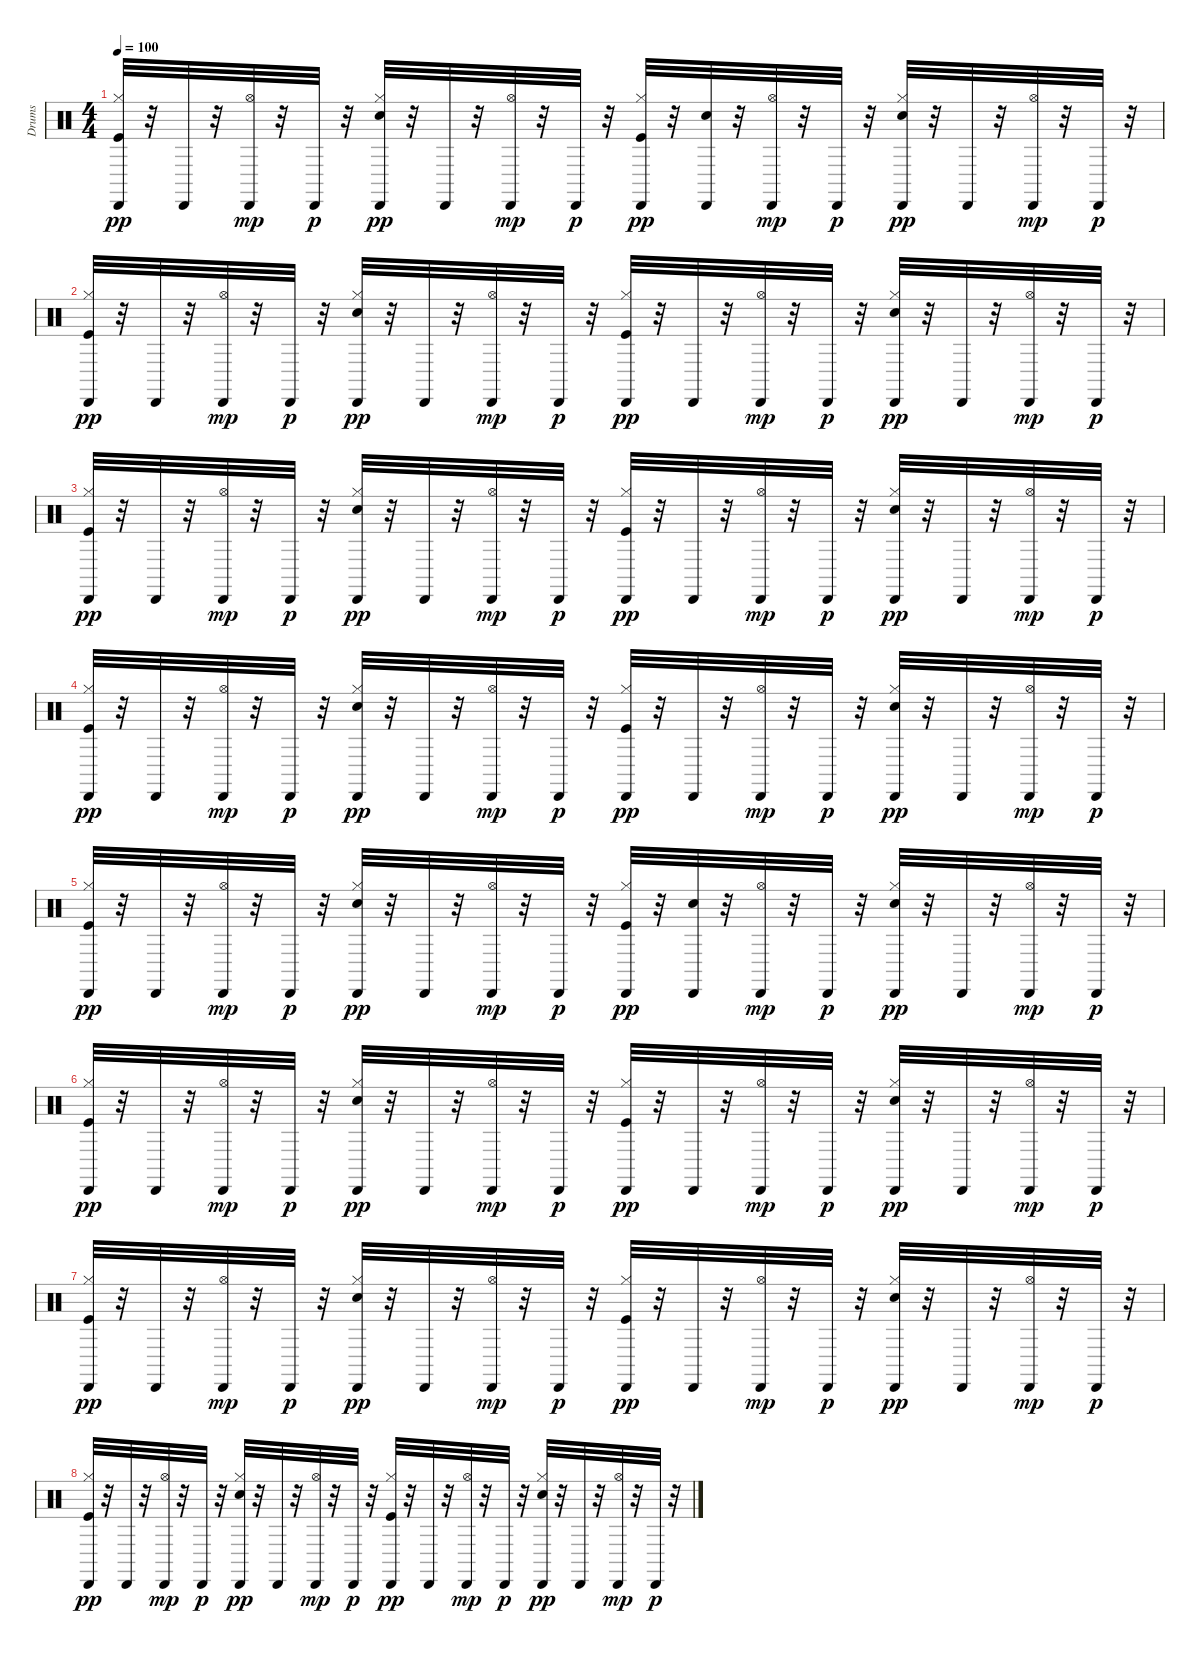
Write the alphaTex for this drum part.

\track ("Drums" "Drums") {instrument percussion}
\staff {score}
\articulation defaults
\ts (4 4)
\tempo 100
\clef neutral
\ks c
("Kick (hit)" "Hi-Hat (closed)" "Cabasa (hit)").32{dy pp} r.32 "Cabasa (hit)".32 r.32 ("Hi-Hat (open)" "Cabasa (hit)").32{dy mp} r.32 "Cabasa (hit)".32{dy p} r.32 ("Electric Snare (hit)" "Hi-Hat (closed)" "Cabasa (hit)").32{dy pp} r.32 "Cabasa (hit)".32 r.32 ("Hi-Hat (open)" "Cabasa (hit)").32{dy mp} r.32 "Cabasa (hit)".32{dy p} r.32 ("Kick (hit)" "Hi-Hat (closed)" "Cabasa (hit)").32{dy pp} r.32 ("Electric Snare (hit)" "Cabasa (hit)").32 r.32 ("Hi-Hat (open)" "Cabasa (hit)").32{dy mp} r.32 "Cabasa (hit)".32{dy p} r.32 ("Electric Snare (hit)" "Hi-Hat (closed)" "Cabasa (hit)").32{dy pp} r.32 "Cabasa (hit)".32 r.32 ("Hi-Hat (open)" "Cabasa (hit)").32{dy mp} r.32 "Cabasa (hit)".32{dy p} r.32 |
("Kick (hit)" "Hi-Hat (closed)" "Cabasa (hit)").32{dy pp} r.32 "Cabasa (hit)".32 r.32 ("Hi-Hat (open)" "Cabasa (hit)").32{dy mp} r.32 "Cabasa (hit)".32{dy p} r.32 ("Electric Snare (hit)" "Hi-Hat (closed)" "Cabasa (hit)").32{dy pp} r.32 "Cabasa (hit)".32 r.32 ("Hi-Hat (open)" "Cabasa (hit)").32{dy mp} r.32 "Cabasa (hit)".32{dy p} r.32 ("Kick (hit)" "Hi-Hat (closed)" "Cabasa (hit)").32{dy pp} r.32 "Cabasa (hit)".32 r.32 ("Hi-Hat (open)" "Cabasa (hit)").32{dy mp} r.32 "Cabasa (hit)".32{dy p} r.32 ("Electric Snare (hit)" "Hi-Hat (closed)" "Cabasa (hit)").32{dy pp} r.32 "Cabasa (hit)".32 r.32 ("Hi-Hat (open)" "Cabasa (hit)").32{dy mp} r.32 "Cabasa (hit)".32{dy p} r.32 |
("Kick (hit)" "Hi-Hat (closed)" "Cabasa (hit)").32{dy pp} r.32 "Cabasa (hit)".32 r.32 ("Hi-Hat (open)" "Cabasa (hit)").32{dy mp} r.32 "Cabasa (hit)".32{dy p} r.32 ("Electric Snare (hit)" "Hi-Hat (closed)" "Cabasa (hit)").32{dy pp} r.32 "Cabasa (hit)".32 r.32 ("Hi-Hat (open)" "Cabasa (hit)").32{dy mp} r.32 "Cabasa (hit)".32{dy p} r.32 ("Kick (hit)" "Hi-Hat (closed)" "Cabasa (hit)").32{dy pp} r.32 "Cabasa (hit)".32 r.32 ("Hi-Hat (open)" "Cabasa (hit)").32{dy mp} r.32 "Cabasa (hit)".32{dy p} r.32 ("Electric Snare (hit)" "Hi-Hat (closed)" "Cabasa (hit)").32{dy pp} r.32 "Cabasa (hit)".32 r.32 ("Hi-Hat (open)" "Cabasa (hit)").32{dy mp} r.32 "Cabasa (hit)".32{dy p} r.32 |
("Kick (hit)" "Hi-Hat (closed)" "Cabasa (hit)").32{dy pp} r.32 "Cabasa (hit)".32 r.32 ("Hi-Hat (open)" "Cabasa (hit)").32{dy mp} r.32 "Cabasa (hit)".32{dy p} r.32 ("Electric Snare (hit)" "Hi-Hat (closed)" "Cabasa (hit)").32{dy pp} r.32 "Cabasa (hit)".32 r.32 ("Hi-Hat (open)" "Cabasa (hit)").32{dy mp} r.32 "Cabasa (hit)".32{dy p} r.32 ("Kick (hit)" "Hi-Hat (closed)" "Cabasa (hit)").32{dy pp} r.32 "Cabasa (hit)".32 r.32 ("Hi-Hat (open)" "Cabasa (hit)").32{dy mp} r.32 "Cabasa (hit)".32{dy p} r.32 ("Electric Snare (hit)" "Hi-Hat (closed)" "Cabasa (hit)").32{dy pp} r.32 "Cabasa (hit)".32 r.32 ("Hi-Hat (open)" "Cabasa (hit)").32{dy mp} r.32 "Cabasa (hit)".32{dy p} r.32 |
("Kick (hit)" "Hi-Hat (closed)" "Cabasa (hit)").32{dy pp} r.32 "Cabasa (hit)".32 r.32 ("Hi-Hat (open)" "Cabasa (hit)").32{dy mp} r.32 "Cabasa (hit)".32{dy p} r.32 ("Electric Snare (hit)" "Hi-Hat (closed)" "Cabasa (hit)").32{dy pp} r.32 "Cabasa (hit)".32 r.32 ("Hi-Hat (open)" "Cabasa (hit)").32{dy mp} r.32 "Cabasa (hit)".32{dy p} r.32 ("Kick (hit)" "Hi-Hat (closed)" "Cabasa (hit)").32{dy pp} r.32 ("Electric Snare (hit)" "Cabasa (hit)").32 r.32 ("Hi-Hat (open)" "Cabasa (hit)").32{dy mp} r.32 "Cabasa (hit)".32{dy p} r.32 ("Electric Snare (hit)" "Hi-Hat (closed)" "Cabasa (hit)").32{dy pp} r.32 "Cabasa (hit)".32 r.32 ("Hi-Hat (open)" "Cabasa (hit)").32{dy mp} r.32 "Cabasa (hit)".32{dy p} r.32 |
("Kick (hit)" "Hi-Hat (closed)" "Cabasa (hit)").32{dy pp} r.32 "Cabasa (hit)".32 r.32 ("Hi-Hat (open)" "Cabasa (hit)").32{dy mp} r.32 "Cabasa (hit)".32{dy p} r.32 ("Electric Snare (hit)" "Hi-Hat (closed)" "Cabasa (hit)").32{dy pp} r.32 "Cabasa (hit)".32 r.32 ("Hi-Hat (open)" "Cabasa (hit)").32{dy mp} r.32 "Cabasa (hit)".32{dy p} r.32 ("Kick (hit)" "Hi-Hat (closed)" "Cabasa (hit)").32{dy pp} r.32 "Cabasa (hit)".32 r.32 ("Hi-Hat (open)" "Cabasa (hit)").32{dy mp} r.32 "Cabasa (hit)".32{dy p} r.32 ("Electric Snare (hit)" "Hi-Hat (closed)" "Cabasa (hit)").32{dy pp} r.32 "Cabasa (hit)".32 r.32 ("Hi-Hat (open)" "Cabasa (hit)").32{dy mp} r.32 "Cabasa (hit)".32{dy p} r.32 |
("Kick (hit)" "Hi-Hat (closed)" "Cabasa (hit)").32{dy pp} r.32 "Cabasa (hit)".32 r.32 ("Hi-Hat (open)" "Cabasa (hit)").32{dy mp} r.32 "Cabasa (hit)".32{dy p} r.32 ("Electric Snare (hit)" "Hi-Hat (closed)" "Cabasa (hit)").32{dy pp} r.32 "Cabasa (hit)".32 r.32 ("Hi-Hat (open)" "Cabasa (hit)").32{dy mp} r.32 "Cabasa (hit)".32{dy p} r.32 ("Kick (hit)" "Hi-Hat (closed)" "Cabasa (hit)").32{dy pp} r.32 "Cabasa (hit)".32 r.32 ("Hi-Hat (open)" "Cabasa (hit)").32{dy mp} r.32 "Cabasa (hit)".32{dy p} r.32 ("Electric Snare (hit)" "Hi-Hat (closed)" "Cabasa (hit)").32{dy pp} r.32 "Cabasa (hit)".32 r.32 ("Hi-Hat (open)" "Cabasa (hit)").32{dy mp} r.32 "Cabasa (hit)".32{dy p} r.32 |
("Kick (hit)" "Hi-Hat (closed)" "Cabasa (hit)").32{dy pp} r.32 "Cabasa (hit)".32 r.32 ("Hi-Hat (open)" "Cabasa (hit)").32{dy mp} r.32 "Cabasa (hit)".32{dy p} r.32 ("Electric Snare (hit)" "Hi-Hat (closed)" "Cabasa (hit)").32{dy pp} r.32 "Cabasa (hit)".32 r.32 ("Hi-Hat (open)" "Cabasa (hit)").32{dy mp} r.32 "Cabasa (hit)".32{dy p} r.32 ("Kick (hit)" "Hi-Hat (closed)" "Cabasa (hit)").32{dy pp} r.32 "Cabasa (hit)".32 r.32 ("Hi-Hat (open)" "Cabasa (hit)").32{dy mp} r.32 "Cabasa (hit)".32{dy p} r.32 ("Electric Snare (hit)" "Hi-Hat (closed)" "Cabasa (hit)").32{dy pp} r.32 "Cabasa (hit)".32 r.32 ("Hi-Hat (open)" "Cabasa (hit)").32{dy mp} r.32 "Cabasa (hit)".32{dy p} r.32
